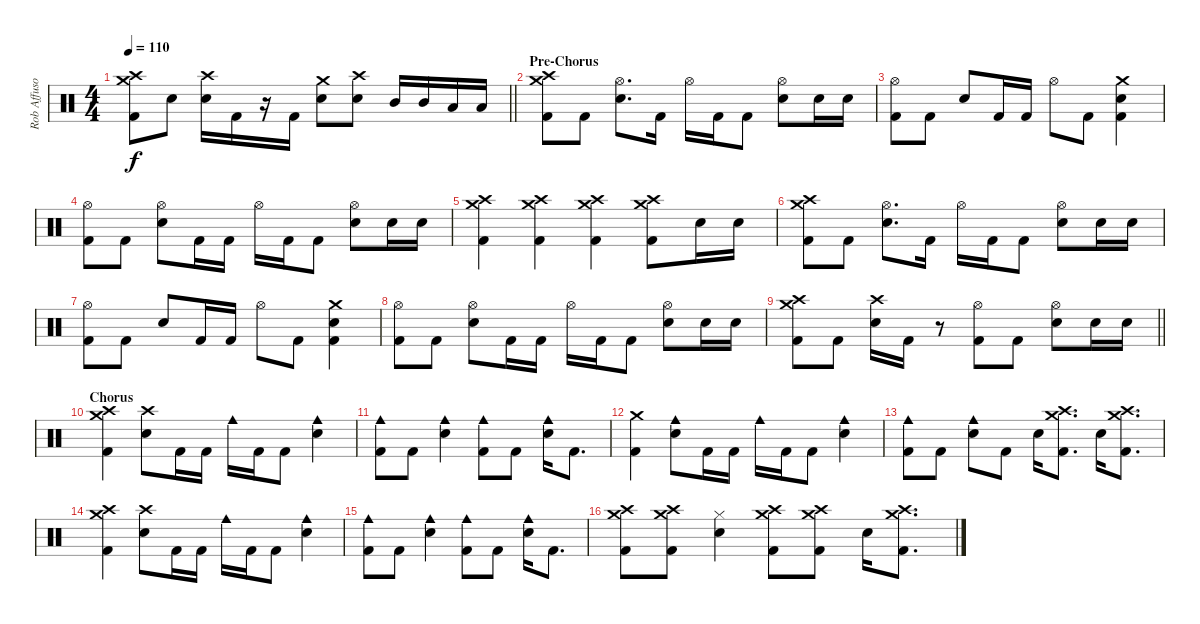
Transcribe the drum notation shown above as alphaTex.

\track ("Rob Affuso - Drums" "Rob Affuso") {instrument percussion}
\staff {score}
\articulation defaults
\ts (4 4)
\tempo 110
\clef neutral
\barLineRight lightlight
\ks c
("Crash medium (hit)" "Crash high (hit)" "Kick (hit) 2").8{dy f} "Snare (hit) 2".8 ("Crash high (hit)" "Snare (hit) 2").16 "Kick (hit) 2".16 r.16 "Kick (hit) 2".16 ("Crash medium (hit)" "Snare (hit) 2").8 ("Crash high (hit)" "Snare (hit) 2").8 "Mid Tom (hit)".16 "Mid Tom (hit)".16 "Low Tom (hit)".16 "Low Tom (hit)".16 |
\section ("" "Pre-Chorus")
("Crash medium (hit)" "Crash high (hit)" "Kick (hit) 2").8 "Kick (hit) 2".8 ("Hi-Hat (open)" "Snare (hit) 2").8{d} "Kick (hit) 2".16 "Hi-Hat (open)".16 "Kick (hit) 2".16 "Kick (hit) 2".8 ("Hi-Hat (open)" "Snare (hit) 2").8 "Snare (hit) 2".16 "Snare (hit) 2".16 |
("Hi-Hat (open)" "Kick (hit) 2").8 "Kick (hit) 2".8 "Snare (hit) 2".8 "Kick (hit) 2".16 "Kick (hit) 2".16 "Hi-Hat (open)".8 "Kick (hit) 2".8 ("Crash medium (hit)" "Snare (hit) 2" "Kick (hit) 2").4 |
("Hi-Hat (open)" "Kick (hit) 2").8 "Kick (hit) 2".8 ("Hi-Hat (open)" "Snare (hit) 2").8 "Kick (hit) 2".16 "Kick (hit) 2".16 "Hi-Hat (open)".16 "Kick (hit) 2".16 "Kick (hit) 2".8 ("Hi-Hat (open)" "Snare (hit) 2").8 "Snare (hit) 2".16 "Snare (hit) 2".16 |
("Crash medium (hit)" "Crash high (hit)" "Kick (hit) 2").4 ("Crash high (hit)" "Crash medium (hit)" "Kick (hit) 2").4 ("Crash medium (hit)" "Crash high (hit)" "Kick (hit) 2").4 ("Crash high (hit)" "Crash medium (hit)" "Kick (hit) 2").8 "Snare (hit) 2".16 "Snare (hit) 2".16 |
("Crash medium (hit)" "Crash high (hit)" "Kick (hit) 2").8 "Kick (hit) 2".8 ("Hi-Hat (open)" "Snare (hit) 2").8{d} "Kick (hit) 2".16 "Hi-Hat (open)".16 "Kick (hit) 2".16 "Kick (hit) 2".8 ("Hi-Hat (open)" "Snare (hit) 2").8 "Snare (hit) 2".16 "Snare (hit) 2".16 |
("Hi-Hat (open)" "Kick (hit) 2").8 "Kick (hit) 2".8 "Snare (hit) 2".8 "Kick (hit) 2".16 "Kick (hit) 2".16 "Hi-Hat (open)".8 "Kick (hit) 2".8 ("Crash medium (hit)" "Snare (hit) 2" "Kick (hit) 2").4 |
("Hi-Hat (open)" "Kick (hit) 2").8 "Kick (hit) 2".8 ("Hi-Hat (open)" "Snare (hit) 2").8 "Kick (hit) 2".16 "Kick (hit) 2".16 "Hi-Hat (open)".16 "Kick (hit) 2".16 "Kick (hit) 2".8 ("Hi-Hat (open)" "Snare (hit) 2").8 "Snare (hit) 2".16 "Snare (hit) 2".16 |
\barLineRight lightlight
("Crash medium (hit)" "Crash high (hit)" "Kick (hit) 2").8 "Kick (hit) 2".8 ("Crash high (hit)" "Snare (hit) 2").16 "Kick (hit) 2".16 r.8 ("Hi-Hat (open)" "Kick (hit) 2").8 "Kick (hit) 2".8 ("Hi-Hat (open)" "Snare (hit) 2").8 "Snare (hit) 2".16 "Snare (hit) 2".16 |
\section ("" "Chorus")
("Crash medium (hit)" "Crash high (hit)" "Kick (hit) 2").4 ("Crash high (hit)" "Snare (hit) 2").8 "Kick (hit) 2".16 "Kick (hit) 2".16 "Cowbell medium (hit)".16 "Kick (hit) 2".16 "Kick (hit) 2".8 ("Cowbell medium (hit)" "Snare (hit) 2").4 |
("Cowbell medium (hit)" "Kick (hit) 2").8 "Kick (hit) 2".8 ("Cowbell medium (hit)" "Snare (hit) 2").4 ("Cowbell medium (hit)" "Kick (hit) 2").8 "Kick (hit) 2".8 ("Cowbell medium (hit)" "Snare (hit) 2").16 "Kick (hit) 2".8{d} |
("Crash medium (hit)" "Kick (hit) 2").4 ("Cowbell medium (hit)" "Snare (hit) 2").8 "Kick (hit) 2".16 "Kick (hit) 2".16 "Cowbell medium (hit)".16 "Kick (hit) 2".16 "Kick (hit) 2".8 ("Cowbell medium (hit)" "Snare (hit) 2").4 |
("Cowbell medium (hit)" "Kick (hit) 2").8 "Kick (hit) 2".8 ("Cowbell medium (hit)" "Snare (hit) 2").8 "Kick (hit) 2".8 "Snare (hit) 2".16 ("Crash medium (hit)" "Crash high (hit)" "Kick (hit) 2").8{d} "Snare (hit) 2".16 ("Crash high (hit)" "Crash medium (hit)" "Kick (hit) 2").8{d} |
("Crash medium (hit)" "Crash high (hit)" "Kick (hit) 2").4 ("Crash high (hit)" "Snare (hit) 2").8 "Kick (hit) 2".16 "Kick (hit) 2".16 "Cowbell medium (hit)".16 "Kick (hit) 2".16 "Kick (hit) 2".8 ("Cowbell medium (hit)" "Snare (hit) 2").4 |
("Cowbell medium (hit)" "Kick (hit) 2").8 "Kick (hit) 2".8 ("Cowbell medium (hit)" "Snare (hit) 2").4 ("Cowbell medium (hit)" "Kick (hit) 2").8 "Kick (hit) 2".8 ("Cowbell medium (hit)" "Snare (hit) 2").16 "Kick (hit) 2".8{d} |
("Crash medium (hit)" "Crash high (hit)" "Kick (hit) 2").8 ("Crash high (hit)" "Crash medium (hit)" "Kick (hit) 2").8 ("Hi-Hat (closed)" "Snare (hit) 2").4 ("Crash medium (hit)" "Crash high (hit)" "Kick (hit) 2").8 ("Crash high (hit)" "Crash medium (hit)" "Kick (hit) 2").8 "Snare (hit) 2".16 ("Crash medium (hit)" "Crash high (hit)" "Kick (hit) 2").8{d}
